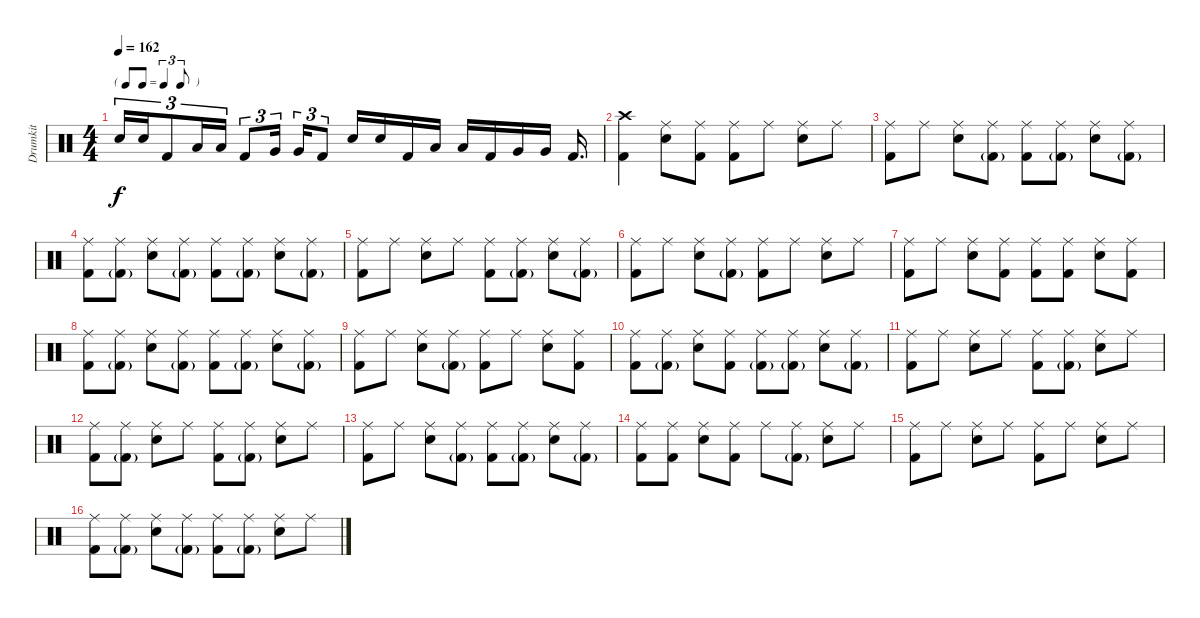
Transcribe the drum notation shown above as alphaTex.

\track ("Drumkit" "Drumkit") {instrument percussion}
\staff {score}
\articulation defaults
\ts (4 4)
\tf triplet8th
\tempo 162
\clef neutral
\ks c "Snare (hit) 2".16{tu (3 2) dy f} "Snare (hit) 2".16{tu (3 2)} "Kick (hit) 2".8{tu (3 2)} "Low Tom (hit)".16{tu (3 2)} "Low Tom (hit)".16{tu (3 2)} "Kick (hit) 2".8{tu (3 2)} "Very Low Tom (hit)".16{tu (3 2)} "Very Low Tom (hit)".16{tu (3 2)} "Kick (hit) 2".8{tu (3 2)} "Snare (hit) 2".16 "Snare (hit) 2".16 "Kick (hit) 2".16 "Low Tom (hit)".16 "Low Tom (hit)".16 "Kick (hit) 2".16 "Very Low Tom (hit)".16 "Very Low Tom (hit)".16 "Kick (hit) 2".16{d}
|
("Kick (hit) 2" "Crash high (hit)").4 ("Snare (hit) 2" "Ride (middle)").8 ("Kick (hit) 2" "Ride (middle)").8 ("Kick (hit) 2" "Ride (middle)").8 "Ride (middle)".8 ("Snare (hit) 2" "Ride (middle)").8 "Ride (middle)".8 |
("Kick (hit) 2" "Ride (middle)").8 "Ride (middle)".8 ("Snare (hit) 2" "Ride (middle)").8 ("Kick (hit) 2"{g} "Ride (middle)").8 ("Kick (hit) 2" "Ride (middle)").8 ("Kick (hit) 2"{g} "Ride (middle)").8 ("Snare (hit) 2" "Ride (middle)").8 ("Kick (hit) 2"{g} "Ride (middle)").8 |
("Kick (hit) 2" "Ride (middle)").8 ("Kick (hit) 2"{g} "Ride (middle)").8 ("Snare (hit) 2" "Ride (middle)").8 ("Kick (hit) 2"{g} "Ride (middle)").8 ("Kick (hit) 2" "Ride (middle)").8 ("Kick (hit) 2"{g} "Ride (middle)").8 ("Snare (hit) 2" "Ride (middle)").8 ("Kick (hit) 2"{g} "Ride (middle)").8 |
("Kick (hit) 2" "Ride (middle)").8 "Ride (middle)".8 ("Snare (hit) 2" "Ride (middle)").8 "Ride (middle)".8 ("Kick (hit) 2" "Ride (middle)").8 ("Kick (hit) 2"{g} "Ride (middle)").8 ("Snare (hit) 2" "Ride (middle)").8 ("Kick (hit) 2"{g} "Ride (middle)").8 |
("Kick (hit) 2" "Ride (middle)").8 "Ride (middle)".8 ("Snare (hit) 2" "Ride (middle)").8 ("Kick (hit) 2"{g} "Ride (middle)").8 ("Kick (hit) 2" "Ride (middle)").8 "Ride (middle)".8 ("Snare (hit) 2" "Ride (middle)").8 "Ride (middle)".8 |
("Kick (hit) 2" "Ride (middle)").8 "Ride (middle)".8 ("Snare (hit) 2" "Ride (middle)").8 ("Kick (hit) 2" "Ride (middle)").8 ("Kick (hit) 2" "Ride (middle)").8 ("Kick (hit) 2" "Ride (middle)").8 ("Snare (hit) 2" "Ride (middle)").8 ("Kick (hit) 2" "Ride (middle)").8 |
("Kick (hit) 2" "Ride (middle)").8 ("Kick (hit) 2"{g} "Ride (middle)").8 ("Snare (hit) 2" "Ride (middle)").8 ("Kick (hit) 2"{g} "Ride (middle)").8 ("Kick (hit) 2" "Ride (middle)").8 ("Kick (hit) 2"{g} "Ride (middle)").8 ("Snare (hit) 2" "Ride (middle)").8 ("Kick (hit) 2"{g} "Ride (middle)").8 |
("Kick (hit) 2" "Ride (middle)").8 "Ride (middle)".8 ("Snare (hit) 2" "Ride (middle)").8 ("Kick (hit) 2"{g} "Ride (middle)").8 ("Kick (hit) 2" "Ride (middle)").8 "Ride (middle)".8 ("Snare (hit) 2" "Ride (middle)").8 ("Kick (hit) 2" "Ride (middle)").8 |
("Kick (hit) 2" "Ride (middle)").8 ("Kick (hit) 2"{g} "Ride (middle)").8 ("Snare (hit) 2" "Ride (middle)").8 ("Kick (hit) 2" "Ride (middle)").8 ("Kick (hit) 2"{g} "Ride (middle)").8 ("Kick (hit) 2"{g} "Ride (middle)").8 ("Snare (hit) 2" "Ride (middle)").8 ("Kick (hit) 2"{g} "Ride (middle)").8 |
("Kick (hit) 2" "Ride (middle)").8 "Ride (middle)".8 ("Snare (hit) 2" "Ride (middle)").8 "Ride (middle)".8 ("Kick (hit) 2" "Ride (middle)").8 ("Kick (hit) 2"{g} "Ride (middle)").8 ("Snare (hit) 2" "Ride (middle)").8 "Ride (middle)".8 |
("Kick (hit) 2" "Ride (middle)").8 ("Kick (hit) 2"{g} "Ride (middle)").8 ("Snare (hit) 2" "Ride (middle)").8 "Ride (middle)".8 ("Kick (hit) 2" "Ride (middle)").8 ("Kick (hit) 2"{g} "Ride (middle)").8 ("Snare (hit) 2" "Ride (middle)").8 "Ride (middle)".8 |
("Kick (hit) 2" "Ride (middle)").8 "Ride (middle)".8 ("Snare (hit) 2" "Ride (middle)").8 ("Kick (hit) 2"{g} "Ride (middle)").8 ("Kick (hit) 2" "Ride (middle)").8 ("Kick (hit) 2"{g} "Ride (middle)").8 ("Snare (hit) 2" "Ride (middle)").8 ("Kick (hit) 2"{g} "Ride (middle)").8 |
("Kick (hit) 2" "Ride (middle)").8 ("Kick (hit) 2" "Ride (middle)").8 ("Snare (hit) 2" "Ride (middle)").8 ("Kick (hit) 2" "Ride (middle)").8 "Ride (middle)".8 ("Kick (hit) 2"{g} "Ride (middle)").8 ("Snare (hit) 2" "Ride (middle)").8 "Ride (middle)".8 |
("Kick (hit) 2" "Ride (middle)").8 "Ride (middle)".8 ("Snare (hit) 2" "Ride (middle)").8 "Ride (middle)".8 ("Kick (hit) 2" "Ride (middle)").8 "Ride (middle)".8 ("Snare (hit) 2" "Ride (middle)").8 "Ride (middle)".8 |
("Kick (hit) 2" "Ride (middle)").8 ("Kick (hit) 2"{g} "Ride (middle)").8 ("Snare (hit) 2" "Ride (middle)").8 ("Kick (hit) 2"{g} "Ride (middle)").8 ("Kick (hit) 2" "Ride (middle)").8 ("Kick (hit) 2"{g} "Ride (middle)").8 ("Snare (hit) 2" "Ride (middle)").8 "Ride (middle)".8
